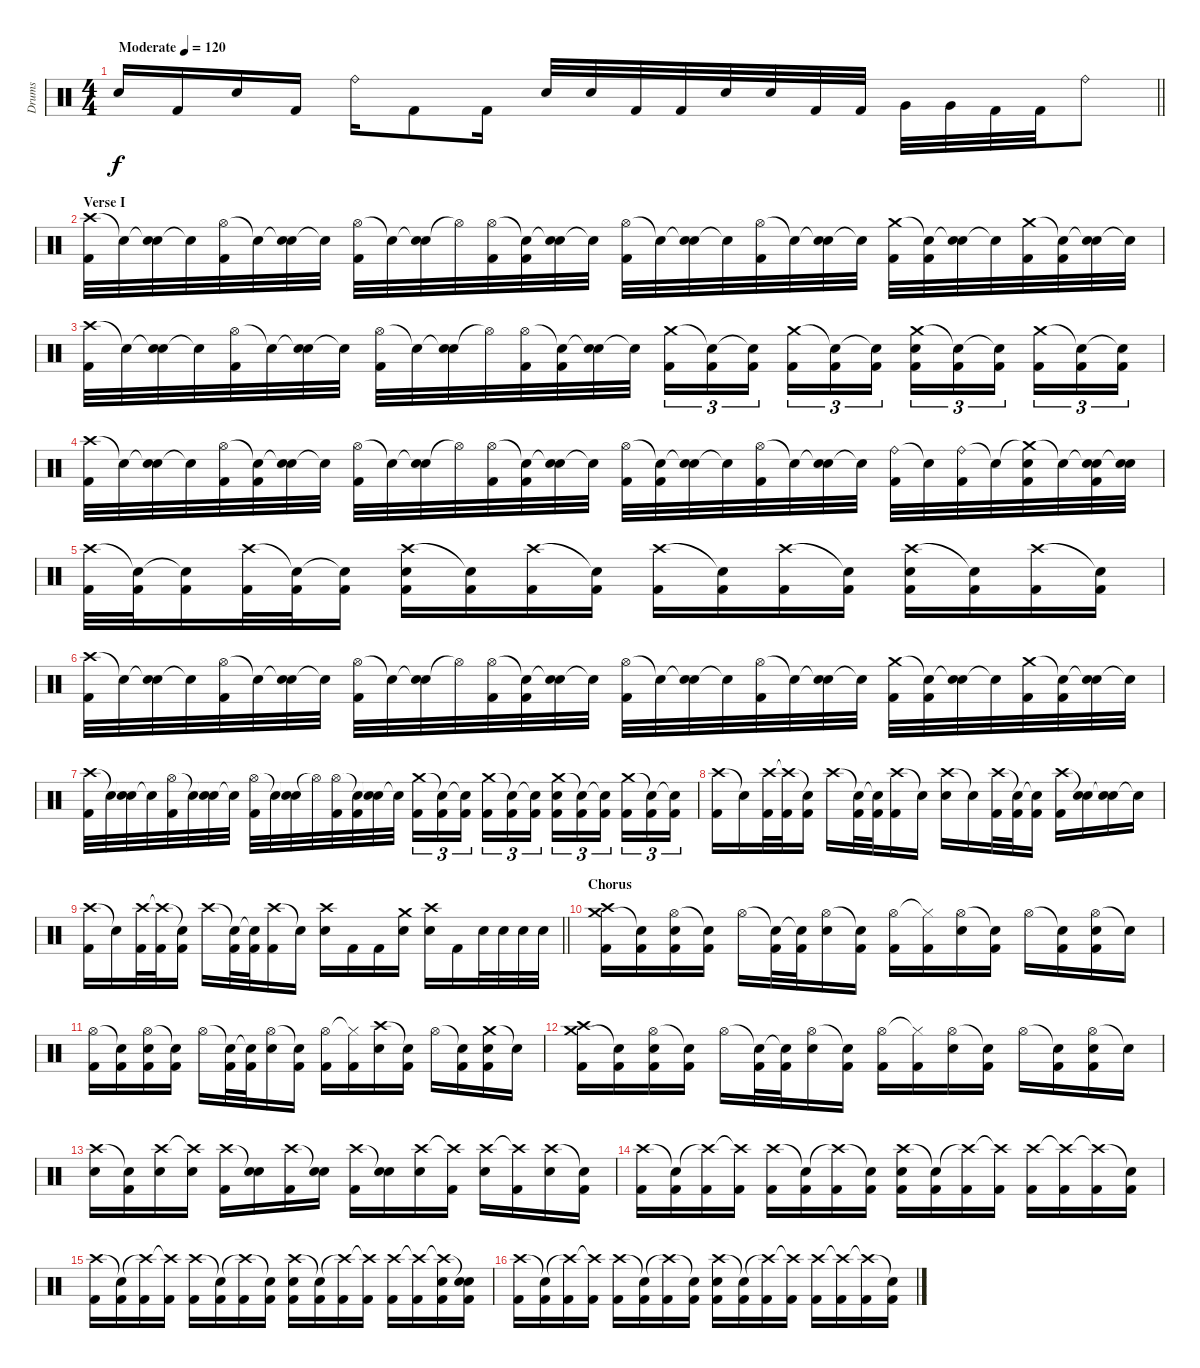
\track ("Drums" "Drums") {instrument percussion}
\staff {score}
\articulation defaults
\ts (4 4)
\tempo (120 "Moderate")
\clef neutral
\barLineRight lightlight
\ks c "Electric Snare (hit)".16{dy f} "Kick (hit) 2".16 "Electric Snare (hit)".16 "Kick (hit) 2".16 "Ride (bell)".16 "Kick (hit) 2".8 "Kick (hit) 2".16 "Electric Snare (hit)".32 "Electric Snare (hit)".32 "Kick (hit) 2".32 "Kick (hit) 2".32 "Electric Snare (hit)".32 "Electric Snare (hit)".32 "Kick (hit) 2".32 "Kick (hit) 2".32 "Very Low Tom (hit)".32 "Very Low Tom (hit)".32 "Kick (hit) 2".32 "Kick (hit) 2".32 "Ride (bell)".8
|
\section ("" "Verse I")
("Crash high (hit)" "Kick (hit) 2").32 "Snare (hit)"{t}.32 ("Snare (hit)"{t} "Electric Snare (hit)").32 "Snare (hit)"{t}.32 ("Hi-Hat (open)" "Kick (hit) 2").32 "Snare (hit)"{t}.32 ("Snare (hit)"{t} "Electric Snare (hit)").32 "Snare (hit)"{t}.32 ("Hi-Hat (open)" "Kick (hit) 2").32 "Snare (hit)"{t}.32 ("Snare (hit)"{t} "Electric Snare (hit)").32 "Hi-Hat (open)"{t}.32 ("Hi-Hat (open)" "Kick (hit) 2").32 ("Snare (hit)"{t} "Kick (hit) 2").32 ("Snare (hit)"{t} "Electric Snare (hit)").32 "Snare (hit)"{t}.32 ("Hi-Hat (open)" "Kick (hit) 2").32 "Snare (hit)"{t}.32 ("Snare (hit)"{t} "Electric Snare (hit)").32 "Snare (hit)"{t}.32 ("Hi-Hat (open)" "Kick (hit) 2").32 "Snare (hit)"{t}.32 ("Snare (hit)"{t} "Electric Snare (hit)").32 "Snare (hit)"{t}.32 ("Crash medium (hit)" "Kick (hit) 2").32 ("Snare (hit)"{t} "Kick (hit) 2").32 ("Snare (hit)"{t} "Electric Snare (hit)").32 "Snare (hit)"{t}.32 ("Crash medium (hit)" "Kick (hit) 2").32 ("Snare (hit)"{t} "Kick (hit) 2").32 ("Snare (hit)"{t} "Electric Snare (hit)").32 "Snare (hit)"{t}.32 |
("Crash high (hit)" "Kick (hit) 2").32 "Snare (hit)"{t}.32 ("Snare (hit)"{t} "Electric Snare (hit)").32 "Snare (hit)"{t}.32 ("Hi-Hat (open)" "Kick (hit) 2").32 "Snare (hit)"{t}.32 ("Snare (hit)"{t} "Electric Snare (hit)").32 "Snare (hit)"{t}.32 ("Hi-Hat (open)" "Kick (hit) 2").32 "Snare (hit)"{t}.32 ("Snare (hit)"{t} "Electric Snare (hit)").32 "Hi-Hat (open)"{t}.32 ("Hi-Hat (open)" "Kick (hit) 2").32 ("Snare (hit)"{t} "Kick (hit) 2").32 ("Snare (hit)"{t} "Electric Snare (hit)").32 "Snare (hit)"{t}.32 ("Crash medium (hit)" "Kick (hit) 2").16{tu (3 2)} ("Snare (hit)"{t} "Kick (hit) 2").16{tu (3 2)} ("Snare (hit)"{t} "Kick (hit) 2").16{tu (3 2) beam splitsecondary} ("Crash medium (hit)" "Kick (hit) 2").16{tu (3 2)} ("Snare (hit)"{t} "Kick (hit) 2").16{tu (3 2)} ("Snare (hit)"{t} "Kick (hit) 2").16{tu (3 2)} ("Crash medium (hit)" "Electric Snare (hit)" "Kick (hit) 2").16{tu (3 2)} ("Snare (hit)"{t} "Kick (hit) 2").16{tu (3 2)} ("Snare (hit)"{t} "Kick (hit) 2").16{tu (3 2) beam splitsecondary} ("Crash medium (hit)" "Kick (hit) 2").16{tu (3 2)} ("Snare (hit)"{t} "Kick (hit) 2").16{tu (3 2)} ("Snare (hit)"{t} "Kick (hit) 2").16{tu (3 2)} |
("Crash high (hit)" "Kick (hit) 2").32 "Snare (hit)"{t}.32 ("Snare (hit)"{t} "Electric Snare (hit)").32 "Snare (hit)"{t}.32 ("Hi-Hat (open)" "Kick (hit) 2").32 ("Snare (hit)"{t} "Kick (hit) 2").32 ("Snare (hit)"{t} "Electric Snare (hit)").32 "Snare (hit)"{t}.32 ("Hi-Hat (open)" "Kick (hit) 2").32 "Snare (hit)"{t}.32 ("Snare (hit)"{t} "Electric Snare (hit)").32 "Hi-Hat (open)"{t}.32 ("Hi-Hat (open)" "Kick (hit) 2").32 ("Snare (hit)"{t} "Kick (hit) 2").32 ("Snare (hit)"{t} "Electric Snare (hit)").32 "Snare (hit)"{t}.32 ("Hi-Hat (open)" "Kick (hit) 2").32 ("Snare (hit)"{t} "Kick (hit) 2").32 ("Snare (hit)"{t} "Electric Snare (hit)").32 "Snare (hit)"{t}.32 ("Hi-Hat (open)" "Kick (hit) 2").32 "Snare (hit)"{t}.32 ("Snare (hit)"{t} "Electric Snare (hit)").32 "Snare (hit)"{t}.32 ("Ride (bell)" "Kick (hit) 2").32 "Snare (hit)"{t}.32 ("Ride (bell)" "Kick (hit) 2").32 "Snare (hit)"{t}.32 ("Crash medium (hit)"{t} "Electric Snare (hit)" "Kick (hit) 2").32 "Snare (hit)"{t}.32 ("Snare (hit)"{t} "Electric Snare (hit)" "Kick (hit) 2").32 ("Snare (hit)"{t} "Electric Snare (hit)").32 |
("Crash high (hit)" "Kick (hit) 2").32 ("Snare (hit)"{t} "Kick (hit) 2").32 ("Snare (hit)"{t} "Kick (hit) 2").16 ("Crash high (hit)" "Kick (hit) 2").32 ("Snare (hit)"{t} "Kick (hit) 2").32 ("Snare (hit)"{t} "Kick (hit) 2").16 ("Crash high (hit)" "Electric Snare (hit)" "Kick (hit) 2").16 ("Snare (hit)"{t} "Kick (hit) 2").16 ("Crash high (hit)" "Kick (hit) 2").16 ("Snare (hit)"{t} "Kick (hit) 2").16 ("Crash high (hit)" "Kick (hit) 2").16 ("Snare (hit)"{t} "Kick (hit) 2").16 ("Crash high (hit)" "Kick (hit) 2").16 ("Snare (hit)"{t} "Kick (hit) 2").16 ("Crash high (hit)" "Electric Snare (hit)" "Kick (hit) 2").16 ("Snare (hit)"{t} "Kick (hit) 2").16 ("Crash high (hit)" "Kick (hit) 2").16 ("Snare (hit)"{t} "Kick (hit) 2").16 |
("Crash high (hit)" "Kick (hit) 2").32 "Snare (hit)"{t}.32 ("Snare (hit)"{t} "Electric Snare (hit)").32 "Snare (hit)"{t}.32 ("Hi-Hat (open)" "Kick (hit) 2").32 "Snare (hit)"{t}.32 ("Snare (hit)"{t} "Electric Snare (hit)").32 "Snare (hit)"{t}.32 ("Hi-Hat (open)" "Kick (hit) 2").32 "Snare (hit)"{t}.32 ("Snare (hit)"{t} "Electric Snare (hit)").32 "Hi-Hat (open)"{t}.32 ("Hi-Hat (open)" "Kick (hit) 2").32 ("Snare (hit)"{t} "Kick (hit) 2").32 ("Snare (hit)"{t} "Electric Snare (hit)").32 "Snare (hit)"{t}.32 ("Hi-Hat (open)" "Kick (hit) 2").32 "Snare (hit)"{t}.32 ("Snare (hit)"{t} "Electric Snare (hit)").32 "Snare (hit)"{t}.32 ("Hi-Hat (open)" "Kick (hit) 2").32 "Snare (hit)"{t}.32 ("Snare (hit)"{t} "Electric Snare (hit)").32 "Snare (hit)"{t}.32 ("Crash medium (hit)" "Kick (hit) 2").32 ("Snare (hit)"{t} "Kick (hit) 2").32 ("Snare (hit)"{t} "Electric Snare (hit)").32 "Snare (hit)"{t}.32 ("Crash medium (hit)" "Kick (hit) 2").32 ("Snare (hit)"{t} "Kick (hit) 2").32 ("Snare (hit)"{t} "Electric Snare (hit)").32 "Snare (hit)"{t}.32 |
("Crash high (hit)" "Kick (hit) 2").32 "Snare (hit)"{t}.32 ("Snare (hit)"{t} "Electric Snare (hit)").32 "Snare (hit)"{t}.32 ("Hi-Hat (open)" "Kick (hit) 2").32 "Snare (hit)"{t}.32 ("Snare (hit)"{t} "Electric Snare (hit)").32 "Snare (hit)"{t}.32 ("Hi-Hat (open)" "Kick (hit) 2").32 "Snare (hit)"{t}.32 ("Snare (hit)"{t} "Electric Snare (hit)").32 "Hi-Hat (open)"{t}.32 ("Hi-Hat (open)" "Kick (hit) 2").32 ("Snare (hit)"{t} "Kick (hit) 2").32 ("Snare (hit)"{t} "Electric Snare (hit)").32 "Snare (hit)"{t}.32 ("Crash medium (hit)" "Kick (hit) 2").16{tu (3 2)} ("Snare (hit)"{t} "Kick (hit) 2").16{tu (3 2)} ("Snare (hit)"{t} "Kick (hit) 2").16{tu (3 2) beam splitsecondary} ("Crash medium (hit)" "Kick (hit) 2").16{tu (3 2)} ("Snare (hit)"{t} "Kick (hit) 2").16{tu (3 2)} ("Snare (hit)"{t} "Kick (hit) 2").16{tu (3 2)} ("Crash medium (hit)" "Electric Snare (hit)" "Kick (hit) 2").16{tu (3 2)} ("Snare (hit)"{t} "Kick (hit) 2").16{tu (3 2)} ("Snare (hit)"{t} "Kick (hit) 2").16{tu (3 2) beam splitsecondary} ("Crash medium (hit)" "Kick (hit) 2").16{tu (3 2)} ("Snare (hit)"{t} "Kick (hit) 2").16{tu (3 2)} ("Snare (hit)"{t} "Kick (hit) 2").16{tu (3 2)} |
("Crash high (hit)" "Kick (hit) 2").16 "Snare (hit)"{t}.16 ("Crash high (hit)" "Kick (hit) 2").32 ("Crash high (hit)"{t} "Kick (hit) 2").32 ("Snare (hit)"{t} "Kick (hit) 2").16 "Crash high (hit)".16 ("Snare (hit)"{t} "Kick (hit) 2").32 ("Snare (hit)"{t} "Kick (hit) 2").32 ("Crash high (hit)" "Kick (hit) 2").16 "Snare (hit)"{t}.16 ("Crash high (hit)" "Electric Snare (hit)").16 "Snare (hit)"{t}.16 ("Crash high (hit)" "Kick (hit) 2").32 ("Snare (hit)"{t} "Kick (hit) 2").32 ("Snare (hit)"{t} "Kick (hit) 2").16 ("Crash high (hit)" "Kick (hit) 2").16 ("Snare (hit)"{t} "Electric Snare (hit)").16 ("Snare (hit)"{t} "Electric Snare (hit)").16 "Snare (hit)"{t}.16 |
\barLineRight lightlight
("Crash high (hit)" "Kick (hit) 2").16 "Snare (hit)"{t}.16 ("Crash high (hit)" "Kick (hit) 2").32 ("Crash high (hit)"{t} "Kick (hit) 2").32 ("Snare (hit)"{t} "Kick (hit) 2").16 "Crash high (hit)".16 ("Snare (hit)"{t} "Kick (hit) 2").32 ("Snare (hit)"{t} "Kick (hit) 2").32 ("Crash high (hit)" "Kick (hit) 2").16 "Snare (hit)"{t}.16 ("Crash high (hit)" "Electric Snare (hit)").16 "Kick (hit) 2".16 "Kick (hit) 2".16 ("Crash medium (hit)" "Electric Snare (hit)").16 ("Crash high (hit)" "Electric Snare (hit)").16 "Kick (hit) 2".16 "Electric Snare (hit)".32 "Electric Snare (hit)".32 "Electric Snare (hit)".32 "Electric Snare (hit)".32 |
\section ("" "Chorus")
("Crash medium (hit)" "Crash high (hit)" "Kick (hit) 2").16 ("Snare (hit)"{t} "Kick (hit) 2").16 ("Hi-Hat (open)" "Electric Snare (hit)" "Kick (hit) 2").16 ("Snare (hit)"{t} "Kick (hit) 2").16 "Hi-Hat (open)".16 ("Snare (hit)"{t} "Kick (hit) 2").32 ("Snare (hit)"{t} "Kick (hit) 2").32 ("Hi-Hat (open)" "Electric Snare (hit)").16 ("Snare (hit)"{t} "Kick (hit) 2").16 ("Hi-Hat (open)" "Kick (hit) 2").16 ("Hi-Hat (closed)"{t} "Kick (hit) 2").16 ("Hi-Hat (open)" "Electric Snare (hit)").16 ("Snare (hit)"{t} "Kick (hit) 2").16 "Hi-Hat (open)".16 ("Snare (hit)"{t} "Kick (hit) 2").16 ("Hi-Hat (open)" "Electric Snare (hit)" "Kick (hit) 2").16 "Snare (hit)"{t}.16 |
("Hi-Hat (open)" "Kick (hit) 2").16 ("Snare (hit)"{t} "Kick (hit) 2").16 ("Hi-Hat (open)" "Electric Snare (hit)" "Kick (hit) 2").16 ("Snare (hit)"{t} "Kick (hit) 2").16 "Hi-Hat (open)".16 ("Snare (hit)"{t} "Kick (hit) 2").32 ("Snare (hit)"{t} "Kick (hit) 2").32 ("Hi-Hat (open)" "Electric Snare (hit)").16 ("Snare (hit)"{t} "Kick (hit) 2").16 ("Hi-Hat (open)" "Kick (hit) 2").16 ("Hi-Hat (closed)"{t} "Kick (hit) 2").16 ("Crash high (hit)" "Electric Snare (hit)").16 ("Snare (hit)"{t} "Kick (hit) 2").16 "Hi-Hat (open)".16 ("Snare (hit)"{t} "Kick (hit) 2").16 ("Crash medium (hit)" "Electric Snare (hit)" "Kick (hit) 2").16 "Snare (hit)"{t}.16 |
("Crash medium (hit)" "Crash high (hit)" "Kick (hit) 2").16 ("Snare (hit)"{t} "Kick (hit) 2").16 ("Hi-Hat (open)" "Electric Snare (hit)" "Kick (hit) 2").16 ("Snare (hit)"{t} "Kick (hit) 2").16 "Hi-Hat (open)".16 ("Snare (hit)"{t} "Kick (hit) 2").32 ("Snare (hit)"{t} "Kick (hit) 2").32 ("Hi-Hat (open)" "Electric Snare (hit)").16 ("Snare (hit)"{t} "Kick (hit) 2").16 ("Hi-Hat (open)" "Kick (hit) 2").16 ("Hi-Hat (closed)"{t} "Kick (hit) 2").16 ("Hi-Hat (open)" "Electric Snare (hit)").16 ("Snare (hit)"{t} "Kick (hit) 2").16 "Hi-Hat (open)".16 ("Snare (hit)"{t} "Kick (hit) 2").16 ("Hi-Hat (open)" "Electric Snare (hit)" "Kick (hit) 2").16 "Snare (hit)"{t}.16 |
("Crash high (hit)" "Electric Snare (hit)").16 ("Snare (hit)"{t} "Kick (hit) 2").16 ("Crash high (hit)" "Electric Snare (hit)").16 ("Crash high (hit)"{t} "Electric Snare (hit)").16 ("Crash high (hit)" "Kick (hit) 2").16 ("Snare (hit)"{t} "Electric Snare (hit)").16 ("Crash high (hit)" "Kick (hit) 2").16 ("Snare (hit)"{t} "Electric Snare (hit)").16 ("Crash high (hit)" "Kick (hit) 2").16 ("Snare (hit)"{t} "Electric Snare (hit)").16 ("Crash high (hit)" "Electric Snare (hit)").16 ("Crash high (hit)"{t} "Kick (hit) 2").16 ("Crash high (hit)" "Electric Snare (hit)").16 ("Crash high (hit)"{t} "Kick (hit) 2").16 ("Crash high (hit)" "Electric Snare (hit)").16 ("Snare (hit)"{t} "Kick (hit) 2").16 |
("Crash high (hit)" "Kick (hit) 2").16 ("Snare (hit)"{t} "Kick (hit) 2").16 ("Crash high (hit)"{t} "Kick (hit) 2").16 ("Crash high (hit)"{t} "Kick (hit) 2").16 ("Crash high (hit)" "Kick (hit) 2").16 ("Snare (hit)"{t} "Kick (hit) 2").16 ("Crash high (hit)"{t} "Kick (hit) 2").16 ("Snare (hit)"{t} "Kick (hit) 2").16 ("Crash high (hit)" "Electric Snare (hit)" "Kick (hit) 2").16 ("Snare (hit)"{t} "Kick (hit) 2").16 ("Crash high (hit)"{t} "Kick (hit) 2").16 ("Crash high (hit)"{t} "Kick (hit) 2").16 ("Crash high (hit)" "Kick (hit) 2").16 ("Crash high (hit)"{t} "Kick (hit) 2").16 ("Crash high (hit)"{t} "Kick (hit) 2").16 ("Snare (hit)"{t} "Kick (hit) 2").16 |
("Crash high (hit)" "Kick (hit) 2").16 ("Snare (hit)"{t} "Kick (hit) 2").16 ("Crash high (hit)"{t} "Kick (hit) 2").16 ("Crash high (hit)"{t} "Kick (hit) 2").16 ("Crash high (hit)" "Kick (hit) 2").16 ("Snare (hit)"{t} "Kick (hit) 2").16 ("Crash high (hit)"{t} "Kick (hit) 2").16 ("Snare (hit)"{t} "Kick (hit) 2").16 ("Crash high (hit)" "Electric Snare (hit)" "Kick (hit) 2").16 ("Snare (hit)"{t} "Kick (hit) 2").16 ("Crash high (hit)"{t} "Kick (hit) 2").16 ("Crash high (hit)"{t} "Kick (hit) 2").16 ("Crash high (hit)" "Kick (hit) 2").16 ("Crash high (hit)"{t} "Kick (hit) 2").16 ("Crash high (hit)"{t} "Electric Snare (hit)" "Kick (hit) 2").16 ("Snare (hit)"{t} "Electric Snare (hit)" "Kick (hit) 2").16 |
("Crash high (hit)" "Kick (hit) 2").16 ("Snare (hit)"{t} "Kick (hit) 2").16 ("Crash high (hit)"{t} "Kick (hit) 2").16 ("Crash high (hit)"{t} "Kick (hit) 2").16 ("Crash high (hit)" "Kick (hit) 2").16 ("Snare (hit)"{t} "Kick (hit) 2").16 ("Crash high (hit)"{t} "Kick (hit) 2").16 ("Snare (hit)"{t} "Kick (hit) 2").16 ("Crash high (hit)" "Electric Snare (hit)" "Kick (hit) 2").16 ("Snare (hit)"{t} "Kick (hit) 2").16 ("Crash high (hit)"{t} "Kick (hit) 2").16 ("Crash high (hit)"{t} "Kick (hit) 2").16 ("Crash high (hit)" "Kick (hit) 2").16 ("Crash high (hit)"{t} "Kick (hit) 2").16 ("Crash high (hit)"{t} "Kick (hit) 2").16 ("Snare (hit)"{t} "Kick (hit) 2").16
